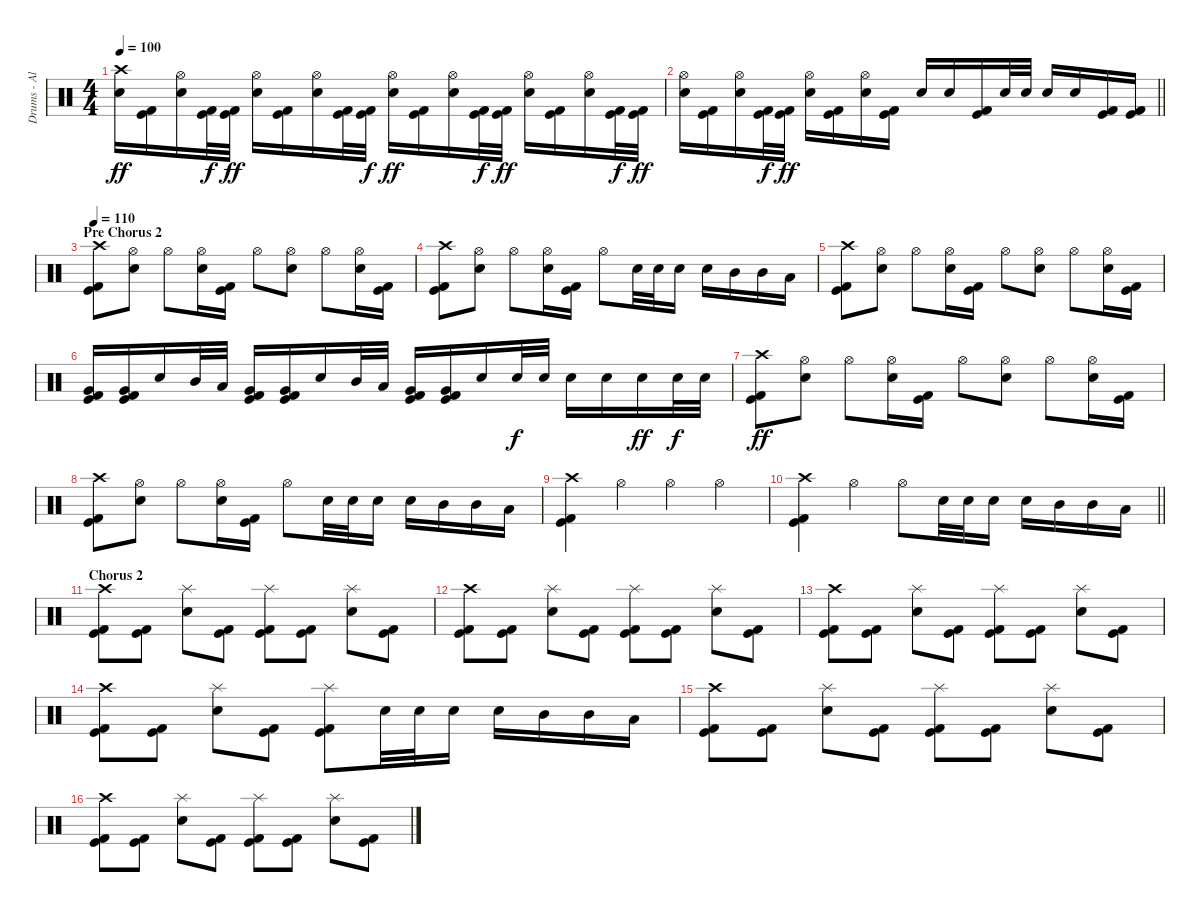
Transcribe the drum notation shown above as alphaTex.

\track ("Drums - Alex Shellnut" "Drums - Al") {instrument percussion}
\staff {score}
\articulation defaults
\ts (4 4)
\tempo 100
\clef neutral
\ks c
("Crash high (hit)" "Electric Snare (hit)").16{dy ff} ("Kick (hit)" "Kick (hit) 2").16 ("Hi-Hat (open)" "Electric Snare (hit)").16 ("Kick (hit)" "Kick (hit) 2").32{dy f} ("Kick (hit)" "Kick (hit) 2").32{dy ff} ("Hi-Hat (open)" "Electric Snare (hit)").16 ("Kick (hit)" "Kick (hit) 2").16 ("Hi-Hat (open)" "Electric Snare (hit)").16 ("Kick (hit)" "Kick (hit) 2").32 ("Kick (hit)" "Kick (hit) 2").32{dy f} ("Hi-Hat (open)" "Electric Snare (hit)").16{dy ff} ("Kick (hit)" "Kick (hit) 2").16 ("Hi-Hat (open)" "Electric Snare (hit)").16 ("Kick (hit)" "Kick (hit) 2").32{dy f} ("Kick (hit)" "Kick (hit) 2").32{dy ff} ("Hi-Hat (open)" "Electric Snare (hit)").16 ("Kick (hit)" "Kick (hit) 2").16 ("Hi-Hat (open)" "Electric Snare (hit)").16 ("Kick (hit)" "Kick (hit) 2").32{dy f} ("Kick (hit)" "Kick (hit) 2").32{dy ff} |
\barLineRight lightlight
("Hi-Hat (open)" "Electric Snare (hit)").16 ("Kick (hit)" "Kick (hit) 2").16 ("Hi-Hat (open)" "Electric Snare (hit)").16 ("Kick (hit)" "Kick (hit) 2").32{dy f} ("Kick (hit)" "Kick (hit) 2").32{dy ff} ("Hi-Hat (open)" "Electric Snare (hit)").16 ("Kick (hit)" "Kick (hit) 2").16 ("Hi-Hat (open)" "Electric Snare (hit)").16 ("Kick (hit)" "Kick (hit) 2").16 "Electric Snare (hit)".16 "Electric Snare (hit)".16 ("Kick (hit) 2" "Kick (hit)").16 "Electric Snare (hit)".32 "Electric Snare (hit)".32 "Electric Snare (hit)".16 "Electric Snare (hit)".16 ("Kick (hit)" "Kick (hit) 2").16 ("Kick (hit)" "Kick (hit) 2").16 |
\section ("" "Pre Chorus 2")
\tempo 110
("Crash high (hit)" "Kick (hit)" "Kick (hit) 2").8 ("Hi-Hat (open)" "Electric Snare (hit)").8 "Hi-Hat (open)".8 ("Hi-Hat (open)" "Electric Snare (hit)").16 ("Kick (hit)" "Kick (hit) 2").16 "Hi-Hat (open)".8 ("Hi-Hat (open)" "Electric Snare (hit)").8 "Hi-Hat (open)".8 ("Hi-Hat (open)" "Electric Snare (hit)").16 ("Kick (hit)" "Kick (hit) 2").16 |
("Crash high (hit)" "Kick (hit)" "Kick (hit) 2").8 ("Hi-Hat (open)" "Electric Snare (hit)").8 "Hi-Hat (open)".8 ("Hi-Hat (open)" "Electric Snare (hit)").16 ("Kick (hit)" "Kick (hit) 2").16 "Hi-Hat (open)".8 "Electric Snare (hit)".32 "Electric Snare (hit)".32 "Electric Snare (hit)".16 "Electric Snare (hit)".16 "Mid Tom (hit)".16 "Mid Tom (hit)".16 "Low Tom (hit)".16 |
("Crash high (hit)" "Kick (hit)" "Kick (hit) 2").8 ("Hi-Hat (open)" "Electric Snare (hit)").8 "Hi-Hat (open)".8 ("Hi-Hat (open)" "Electric Snare (hit)").16 ("Kick (hit)" "Kick (hit) 2").16 "Hi-Hat (open)".8 ("Hi-Hat (open)" "Electric Snare (hit)").8 "Hi-Hat (open)".8 ("Hi-Hat (open)" "Electric Snare (hit)").16 ("Kick (hit)" "Kick (hit) 2").16 |
("Very Low Tom (hit)" "Kick (hit)" "Kick (hit) 2").16 ("Very Low Tom (hit)" "Kick (hit)" "Kick (hit) 2").16 "Electric Snare (hit)".16 "Mid Tom (hit)".32 "Low Tom (hit)".32 ("Very Low Tom (hit)" "Kick (hit)" "Kick (hit) 2").16 ("Very Low Tom (hit)" "Kick (hit)" "Kick (hit) 2").16 "Electric Snare (hit)".16 "Mid Tom (hit)".32 "Low Tom (hit)".32 ("Very Low Tom (hit)" "Kick (hit)" "Kick (hit) 2").16 ("Very Low Tom (hit)" "Kick (hit)" "Kick (hit) 2").16 "Electric Snare (hit)".16 "Electric Snare (hit)".32{dy f} "Electric Snare (hit)".32 "Electric Snare (hit)".16 "Electric Snare (hit)".16 "Electric Snare (hit)".16{dy ff} "Electric Snare (hit)".32{dy f} "Electric Snare (hit)".32 |
("Crash high (hit)" "Kick (hit)" "Kick (hit) 2").8{dy ff} ("Hi-Hat (open)" "Electric Snare (hit)").8 "Hi-Hat (open)".8 ("Hi-Hat (open)" "Electric Snare (hit)").16 ("Kick (hit)" "Kick (hit) 2").16 "Hi-Hat (open)".8 ("Hi-Hat (open)" "Electric Snare (hit)").8 "Hi-Hat (open)".8 ("Hi-Hat (open)" "Electric Snare (hit)").16 ("Kick (hit)" "Kick (hit) 2").16 |
("Crash high (hit)" "Kick (hit)" "Kick (hit) 2").8 ("Hi-Hat (open)" "Electric Snare (hit)").8 "Hi-Hat (open)".8 ("Hi-Hat (open)" "Electric Snare (hit)").16 ("Kick (hit)" "Kick (hit) 2").16 "Hi-Hat (open)".8 "Electric Snare (hit)".32 "Electric Snare (hit)".32 "Electric Snare (hit)".16 "Electric Snare (hit)".16 "Mid Tom (hit)".16 "Mid Tom (hit)".16 "Low Tom (hit)".16 |
("Crash high (hit)" "Kick (hit)" "Kick (hit) 2").4 "Hi-Hat (open)".4 "Hi-Hat (open)".4 "Hi-Hat (open)".4 |
\barLineRight lightlight
("Crash high (hit)" "Kick (hit)" "Kick (hit) 2").4 "Hi-Hat (open)".4 "Hi-Hat (open)".8 "Electric Snare (hit)".32 "Electric Snare (hit)".32 "Electric Snare (hit)".16 "Electric Snare (hit)".16 "Mid Tom (hit)".16 "Mid Tom (hit)".16 "Low Tom (hit)".16 |
\section ("" "Chorus 2")
("Crash high (hit)" "Kick (hit)" "Kick (hit) 2").8 ("Kick (hit)" "Kick (hit) 2").8 ("Splash (hit)" "Electric Snare (hit)").8 ("Kick (hit)" "Kick (hit) 2").8 ("Splash (hit)" "Kick (hit)" "Kick (hit) 2").8 ("Kick (hit)" "Kick (hit) 2").8 ("Splash (hit)" "Electric Snare (hit)").8 ("Kick (hit)" "Kick (hit) 2").8 |
("Crash high (hit)" "Kick (hit)" "Kick (hit) 2").8 ("Kick (hit)" "Kick (hit) 2").8 ("Splash (hit)" "Electric Snare (hit)").8 ("Kick (hit)" "Kick (hit) 2").8 ("Splash (hit)" "Kick (hit)" "Kick (hit) 2").8 ("Kick (hit)" "Kick (hit) 2").8 ("Splash (hit)" "Electric Snare (hit)").8 ("Kick (hit)" "Kick (hit) 2").8 |
("Crash high (hit)" "Kick (hit)" "Kick (hit) 2").8 ("Kick (hit)" "Kick (hit) 2").8 ("Splash (hit)" "Electric Snare (hit)").8 ("Kick (hit)" "Kick (hit) 2").8 ("Splash (hit)" "Kick (hit)" "Kick (hit) 2").8 ("Kick (hit)" "Kick (hit) 2").8 ("Splash (hit)" "Electric Snare (hit)").8 ("Kick (hit)" "Kick (hit) 2").8 |
("Crash high (hit)" "Kick (hit)" "Kick (hit) 2").8 ("Kick (hit)" "Kick (hit) 2").8 ("Splash (hit)" "Electric Snare (hit)").8 ("Kick (hit)" "Kick (hit) 2").8 ("Splash (hit)" "Kick (hit)" "Kick (hit) 2").8 "Electric Snare (hit)".32 "Electric Snare (hit)".32 "Electric Snare (hit)".16 "Electric Snare (hit)".16 "Mid Tom (hit)".16 "Mid Tom (hit)".16 "Low Tom (hit)".16 |
("Crash high (hit)" "Kick (hit)" "Kick (hit) 2").8 ("Kick (hit)" "Kick (hit) 2").8 ("Splash (hit)" "Electric Snare (hit)").8 ("Kick (hit)" "Kick (hit) 2").8 ("Splash (hit)" "Kick (hit)" "Kick (hit) 2").8 ("Kick (hit)" "Kick (hit) 2").8 ("Splash (hit)" "Electric Snare (hit)").8 ("Kick (hit)" "Kick (hit) 2").8 |
("Crash high (hit)" "Kick (hit)" "Kick (hit) 2").8 ("Kick (hit)" "Kick (hit) 2").8 ("Splash (hit)" "Electric Snare (hit)").8 ("Kick (hit)" "Kick (hit) 2").8 ("Splash (hit)" "Kick (hit)" "Kick (hit) 2").8 ("Kick (hit)" "Kick (hit) 2").8 ("Splash (hit)" "Electric Snare (hit)").8 ("Kick (hit)" "Kick (hit) 2").8
